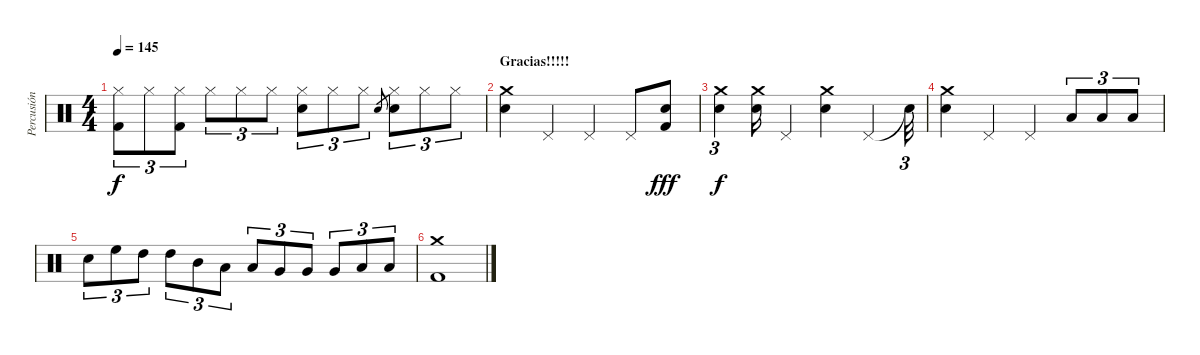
\track ("Percusión" "Percusión") {instrument percussion}
\staff {score}
\articulation defaults
\ts (4 4)
\tempo 145
\clef neutral
\ks c
("Hi-Hat (closed)" "Kick (hit) 2").8{tu (3 2) dy f} "Hi-Hat (closed)".8{tu (3 2)} ("Hi-Hat (closed)" "Kick (hit) 2").8{tu (3 2)} "Hi-Hat (closed)".8{tu (3 2)} "Hi-Hat (closed)".8{tu (3 2)} "Hi-Hat (closed)".8{tu (3 2)} ("Hi-Hat (closed)" "Snare (hit) 2").8{tu (3 2)} "Hi-Hat (closed)".8{tu (3 2)} "Hi-Hat (closed)".8{tu (3 2)} "Snare (hit) 2".8{gr} ("Hi-Hat (closed)" "Snare (hit) 2").8{tu (3 2)} "Hi-Hat (closed)".8{tu (3 2)} "Hi-Hat (closed)".8{tu (3 2)} |
\section ("" "Gracias!!!!!")
("Snare (hit) 2" "Crash medium (hit)").4 "Pedal Hi-Hat (hit)".4 "Pedal Hi-Hat (hit)".4 "Pedal Hi-Hat (hit)".8 ("Kick (hit) 2" "Snare (hit) 2").8{dy fff} |
("Snare (hit) 2" "Crash medium (hit)").4{tu (3 2) dy f} ("Snare (hit) 2" "Crash medium (hit)").16 "Pedal Hi-Hat (hit)".4 ("Snare (hit) 2" "Crash medium (hit)").4 "Pedal Hi-Hat (hit)".4 "Snare (hit)"{t}.32{tu (3 2)} |
("Snare (hit) 2" "Crash medium (hit)").4 "Pedal Hi-Hat (hit)".4 "Pedal Hi-Hat (hit)".4 "Low Tom (hit)".8{tu (3 2)} "Low Tom (hit)".8{tu (3 2)} "Low Tom (hit)".8{tu (3 2)} |
"Snare (hit) 2".8{tu (3 2)} "High Floor Tom (hit)".8{tu (3 2)} "High Tom (hit)".8{tu (3 2)} "High Tom (hit)".8{tu (3 2)} "Mid Tom (hit)".8{tu (3 2)} "Low Tom (hit)".8{tu (3 2)} "Low Tom (hit)".8{tu (3 2)} "Very Low Tom (hit)".8{tu (3 2)} "Very Low Tom (hit)".8{tu (3 2)} "Very Low Tom (hit)".8{tu (3 2)} "Low Floor Tom (hit)".8{tu (3 2)} "Low Floor Tom (hit)".8{tu (3 2)} |
("Crash medium (hit)" "Kick (hit) 2").1
